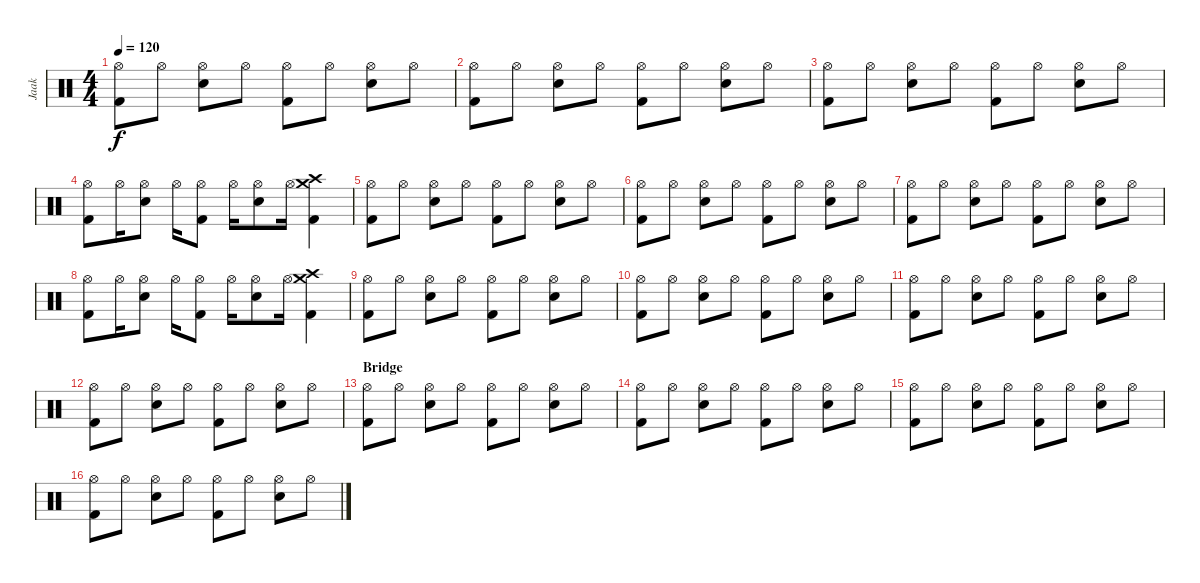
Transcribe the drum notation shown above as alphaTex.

\track ("Jaak" "Jaak") {instrument percussion}
\staff {score}
\articulation defaults
\ts (4 4)
\tempo 120
\clef neutral
\ks c
("Hi-Hat (open)" "Kick (hit) 2").8{dy f} "Hi-Hat (open)".8 ("Hi-Hat (open)" "Snare (hit) 2").8 "Hi-Hat (open)".8 ("Hi-Hat (open)" "Kick (hit) 2").8 "Hi-Hat (open)".8 ("Hi-Hat (open)" "Snare (hit) 2").8 "Hi-Hat (open)".8 |
("Hi-Hat (open)" "Kick (hit) 2").8 "Hi-Hat (open)".8 ("Hi-Hat (open)" "Snare (hit) 2").8 "Hi-Hat (open)".8 ("Hi-Hat (open)" "Kick (hit) 2").8 "Hi-Hat (open)".8 ("Hi-Hat (open)" "Snare (hit) 2").8 "Hi-Hat (open)".8 |
("Hi-Hat (open)" "Kick (hit) 2").8 "Hi-Hat (open)".8 ("Hi-Hat (open)" "Snare (hit) 2").8 "Hi-Hat (open)".8 ("Hi-Hat (open)" "Kick (hit) 2").8 "Hi-Hat (open)".8 ("Hi-Hat (open)" "Snare (hit) 2").8 "Hi-Hat (open)".8 |
("Hi-Hat (open)" "Kick (hit) 2").8 "Hi-Hat (open)".16 ("Hi-Hat (open)" "Snare (hit) 2").8 "Hi-Hat (open)".16 ("Hi-Hat (open)" "Kick (hit) 2").8 "Hi-Hat (open)".16 ("Hi-Hat (open)" "Snare (hit) 2").8 "Hi-Hat (open)".16 ("Crash medium (hit)" "Crash high (hit)" "Kick (hit) 2").4 |
("Hi-Hat (open)" "Kick (hit) 2").8 "Hi-Hat (open)".8 ("Hi-Hat (open)" "Snare (hit) 2").8 "Hi-Hat (open)".8 ("Hi-Hat (open)" "Kick (hit) 2").8 "Hi-Hat (open)".8 ("Hi-Hat (open)" "Snare (hit) 2").8 "Hi-Hat (open)".8 |
("Hi-Hat (open)" "Kick (hit) 2").8 "Hi-Hat (open)".8 ("Hi-Hat (open)" "Snare (hit) 2").8 "Hi-Hat (open)".8 ("Hi-Hat (open)" "Kick (hit) 2").8 "Hi-Hat (open)".8 ("Hi-Hat (open)" "Snare (hit) 2").8 "Hi-Hat (open)".8 |
("Hi-Hat (open)" "Kick (hit) 2").8 "Hi-Hat (open)".8 ("Hi-Hat (open)" "Snare (hit) 2").8 "Hi-Hat (open)".8 ("Hi-Hat (open)" "Kick (hit) 2").8 "Hi-Hat (open)".8 ("Hi-Hat (open)" "Snare (hit) 2").8 "Hi-Hat (open)".8 |
("Hi-Hat (open)" "Kick (hit) 2").8 "Hi-Hat (open)".16 ("Hi-Hat (open)" "Snare (hit) 2").8 "Hi-Hat (open)".16 ("Hi-Hat (open)" "Kick (hit) 2").8 "Hi-Hat (open)".16 ("Hi-Hat (open)" "Snare (hit) 2").8 "Hi-Hat (open)".16 ("Crash medium (hit)" "Crash high (hit)" "Kick (hit) 2").4 |
("Hi-Hat (open)" "Kick (hit) 2").8 "Hi-Hat (open)".8 ("Hi-Hat (open)" "Snare (hit) 2").8 "Hi-Hat (open)".8 ("Hi-Hat (open)" "Kick (hit) 2").8 "Hi-Hat (open)".8 ("Hi-Hat (open)" "Snare (hit) 2").8 "Hi-Hat (open)".8 |
("Hi-Hat (open)" "Kick (hit) 2").8 "Hi-Hat (open)".8 ("Hi-Hat (open)" "Snare (hit) 2").8 "Hi-Hat (open)".8 ("Hi-Hat (open)" "Kick (hit) 2").8 "Hi-Hat (open)".8 ("Hi-Hat (open)" "Snare (hit) 2").8 "Hi-Hat (open)".8 |
("Hi-Hat (open)" "Kick (hit) 2").8 "Hi-Hat (open)".8 ("Hi-Hat (open)" "Snare (hit) 2").8 "Hi-Hat (open)".8 ("Hi-Hat (open)" "Kick (hit) 2").8 "Hi-Hat (open)".8 ("Hi-Hat (open)" "Snare (hit) 2").8 "Hi-Hat (open)".8 |
("Hi-Hat (open)" "Kick (hit) 2").8 "Hi-Hat (open)".8 ("Hi-Hat (open)" "Snare (hit) 2").8 "Hi-Hat (open)".8 ("Hi-Hat (open)" "Kick (hit) 2").8 "Hi-Hat (open)".8 ("Hi-Hat (open)" "Snare (hit) 2").8 "Hi-Hat (open)".8 |
\section ("" "Bridge")
("Hi-Hat (open)" "Kick (hit) 2").8 "Hi-Hat (open)".8 ("Hi-Hat (open)" "Snare (hit) 2").8 "Hi-Hat (open)".8 ("Hi-Hat (open)" "Kick (hit) 2").8 "Hi-Hat (open)".8 ("Hi-Hat (open)" "Snare (hit) 2").8 "Hi-Hat (open)".8 |
("Hi-Hat (open)" "Kick (hit) 2").8 "Hi-Hat (open)".8 ("Hi-Hat (open)" "Snare (hit) 2").8 "Hi-Hat (open)".8 ("Hi-Hat (open)" "Kick (hit) 2").8 "Hi-Hat (open)".8 ("Hi-Hat (open)" "Snare (hit) 2").8 "Hi-Hat (open)".8 |
("Hi-Hat (open)" "Kick (hit) 2").8 "Hi-Hat (open)".8 ("Hi-Hat (open)" "Snare (hit) 2").8 "Hi-Hat (open)".8 ("Hi-Hat (open)" "Kick (hit) 2").8 "Hi-Hat (open)".8 ("Hi-Hat (open)" "Snare (hit) 2").8 "Hi-Hat (open)".8 |
("Hi-Hat (open)" "Kick (hit) 2").8 "Hi-Hat (open)".8 ("Hi-Hat (open)" "Snare (hit) 2").8 "Hi-Hat (open)".8 ("Hi-Hat (open)" "Kick (hit) 2").8 "Hi-Hat (open)".8 ("Hi-Hat (open)" "Snare (hit) 2").8 "Hi-Hat (open)".8
